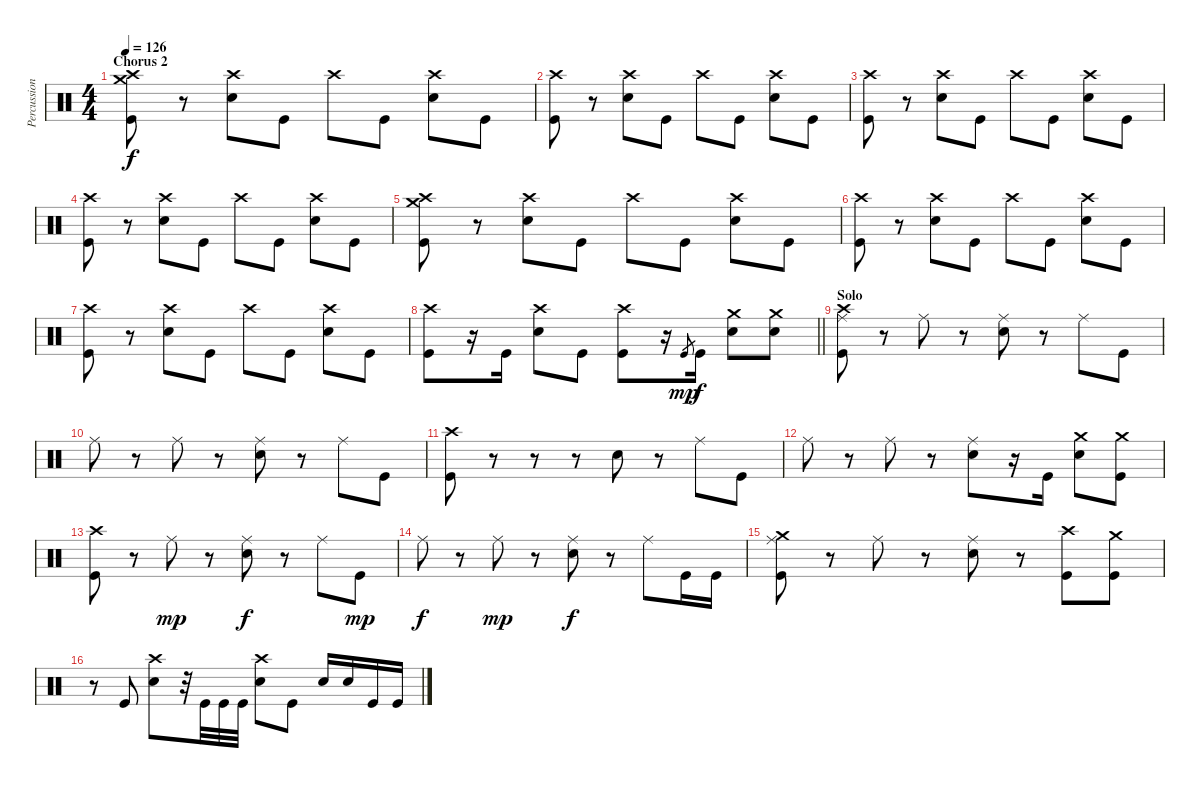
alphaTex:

\track ("Percussion" "Percussion") {instrument percussion}
\staff {score}
\articulation defaults
\ts (4 4)
\section ("" "Chorus 2")
\tempo 126
\clef neutral
\ks c
("Crash high (hit)" "Crash medium (hit)" "Kick (hit)").8{dy f} r.8 ("Crash high (hit)" "Snare (hit) 2").8 "Kick (hit)".8 "Crash high (hit)".8 "Kick (hit)".8 ("Crash high (hit)" "Snare (hit) 2").8 "Kick (hit)".8 |
("Crash high (hit)" "Kick (hit)").8 r.8 ("Crash high (hit)" "Snare (hit) 2").8 "Kick (hit)".8 "Crash high (hit)".8 "Kick (hit)".8 ("Crash high (hit)" "Snare (hit) 2").8 "Kick (hit)".8 |
("Crash high (hit)" "Kick (hit)").8 r.8 ("Crash high (hit)" "Snare (hit) 2").8 "Kick (hit)".8 "Crash high (hit)".8 "Kick (hit)".8 ("Crash high (hit)" "Snare (hit) 2").8 "Kick (hit)".8 |
("Crash high (hit)" "Kick (hit)").8 r.8 ("Crash high (hit)" "Snare (hit) 2").8 "Kick (hit)".8 "Crash high (hit)".8 "Kick (hit)".8 ("Crash high (hit)" "Snare (hit) 2").8 "Kick (hit)".8 |
("Crash high (hit)" "Crash medium (hit)" "Kick (hit)").8 r.8 ("Crash high (hit)" "Snare (hit) 2").8 "Kick (hit)".8 "Crash high (hit)".8 "Kick (hit)".8 ("Crash high (hit)" "Snare (hit) 2").8 "Kick (hit)".8 |
("Crash high (hit)" "Kick (hit)").8 r.8 ("Crash high (hit)" "Snare (hit) 2").8 "Kick (hit)".8 "Crash high (hit)".8 "Kick (hit)".8 ("Crash high (hit)" "Snare (hit) 2").8 "Kick (hit)".8 |
("Crash high (hit)" "Kick (hit)").8 r.8 ("Crash high (hit)" "Snare (hit) 2").8 "Kick (hit)".8 "Crash high (hit)".8 "Kick (hit)".8 ("Crash high (hit)" "Snare (hit) 2").8 "Kick (hit)".8 |
\barLineRight lightlight
("Crash high (hit)" "Kick (hit)").8 r.16 "Kick (hit)".16 ("Crash high (hit)" "Snare (hit) 2").8 "Kick (hit)".8 ("Crash high (hit)" "Kick (hit)").8 r.16 "Kick (hit)".8{gr dy mp} "Kick (hit)".16{dy f} ("Crash medium (hit)" "Snare (hit) 2").8 ("Crash medium (hit)" "Snare (hit) 2").8 |
\section ("" "Solo")
("Ride (middle)" "Crash high (hit)" "Kick (hit)").8 r.8 "Ride (middle)".8 r.8 ("Ride (middle)" "Snare (hit) 2").8 r.8 "Ride (middle)".8 "Kick (hit)".8 |
"Ride (middle)".8 r.8 "Ride (middle)".8 r.8 ("Ride (middle)" "Snare (hit) 2").8 r.8 "Ride (middle)".8 "Kick (hit)".8 |
("Crash high (hit)" "Kick (hit)").8 r.8 r.8 r.8 "Snare (hit) 2".8 r.8 "Ride (middle)".8 "Kick (hit)".8 |
"Ride (middle)".8 r.8 "Ride (middle)".8 r.8 ("Ride (middle)" "Snare (hit) 2").8 r.16 "Kick (hit)".16 ("Crash medium (hit)" "Snare (hit) 2").8 ("Crash medium (hit)" "Kick (hit)").8 |
("Crash high (hit)" "Kick (hit)").8 r.8 "Ride (middle)".8{dy mp} r.8 ("Ride (middle)" "Snare (hit) 2").8{dy f} r.8 "Ride (middle)".8 "Kick (hit)".8{dy mp} |
"Ride (middle)".8{dy f} r.8 "Ride (middle)".8{dy mp} r.8 ("Ride (middle)" "Snare (hit) 2").8{dy f} r.8 "Ride (middle)".8 "Kick (hit)".16 "Kick (hit)".16 |
("Ride (middle)" "Crash medium (hit)" "Kick (hit)").8 r.8 "Ride (middle)".8 r.8 ("Ride (middle)" "Snare (hit) 2").8 r.8 ("Crash high (hit)" "Kick (hit)").8 ("Crash medium (hit)" "Kick (hit)").8 |
r.8 "Kick (hit)".8 ("Crash high (hit)" "Snare (hit) 2").8 r.32 "Kick (hit)".32 "Kick (hit)".32 "Kick (hit)".32 ("Crash high (hit)" "Snare (hit) 2").8 "Kick (hit)".8 "Snare (hit) 2".16 "Snare (hit) 2".16 "Kick (hit)".16 "Kick (hit)".16
